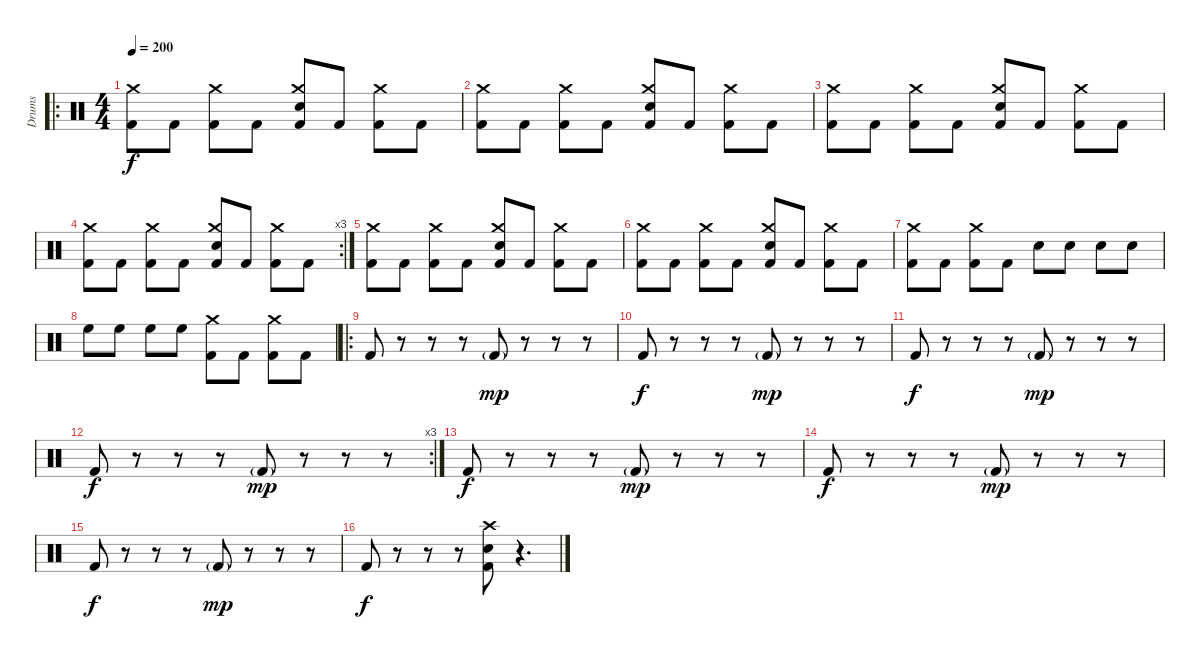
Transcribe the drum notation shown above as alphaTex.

\track ("Drums" "Drums") {instrument percussion}
\staff {score}
\articulation defaults
\ro
\ts (4 4)
\tempo 200
\clef neutral
\ks c
("Kick (hit) 2" "Crash medium (hit)").8{dy f} "Kick (hit) 2".8 ("Kick (hit) 2" "Crash medium (hit)").8 "Kick (hit) 2".8 ("Kick (hit) 2" "Crash medium (hit)" "Electric Snare (hit)").8 "Kick (hit) 2".8 ("Kick (hit) 2" "Crash medium (hit)").8 "Kick (hit) 2".8 |
("Kick (hit) 2" "Crash medium (hit)").8 "Kick (hit) 2".8 ("Kick (hit) 2" "Crash medium (hit)").8 "Kick (hit) 2".8 ("Kick (hit) 2" "Crash medium (hit)" "Electric Snare (hit)").8 "Kick (hit) 2".8 ("Kick (hit) 2" "Crash medium (hit)").8 "Kick (hit) 2".8 |
("Kick (hit) 2" "Crash medium (hit)").8 "Kick (hit) 2".8 ("Kick (hit) 2" "Crash medium (hit)").8 "Kick (hit) 2".8 ("Kick (hit) 2" "Crash medium (hit)" "Electric Snare (hit)").8 "Kick (hit) 2".8 ("Kick (hit) 2" "Crash medium (hit)").8 "Kick (hit) 2".8 |
\rc 3
("Kick (hit) 2" "Crash medium (hit)").8 "Kick (hit) 2".8 ("Kick (hit) 2" "Crash medium (hit)").8 "Kick (hit) 2".8 ("Kick (hit) 2" "Crash medium (hit)" "Electric Snare (hit)").8 "Kick (hit) 2".8 ("Kick (hit) 2" "Crash medium (hit)").8 "Kick (hit) 2".8 |
("Kick (hit) 2" "Crash medium (hit)").8 "Kick (hit) 2".8 ("Kick (hit) 2" "Crash medium (hit)").8 "Kick (hit) 2".8 ("Kick (hit) 2" "Crash medium (hit)" "Electric Snare (hit)").8 "Kick (hit) 2".8 ("Kick (hit) 2" "Crash medium (hit)").8 "Kick (hit) 2".8 |
("Kick (hit) 2" "Crash medium (hit)").8 "Kick (hit) 2".8 ("Kick (hit) 2" "Crash medium (hit)").8 "Kick (hit) 2".8 ("Kick (hit) 2" "Crash medium (hit)" "Electric Snare (hit)").8 "Kick (hit) 2".8 ("Kick (hit) 2" "Crash medium (hit)").8 "Kick (hit) 2".8 |
("Kick (hit) 2" "Crash medium (hit)").8 "Kick (hit) 2".8 ("Kick (hit) 2" "Crash medium (hit)").8 "Kick (hit) 2".8 "Electric Snare (hit)".8 "Electric Snare (hit)".8 "Electric Snare (hit)".8 "Electric Snare (hit)".8 |
"High Floor Tom (hit)".8 "High Floor Tom (hit)".8 "High Floor Tom (hit)".8 "High Floor Tom (hit)".8 ("Kick (hit) 2" "Crash medium (hit)").8 "Kick (hit) 2".8 ("Kick (hit) 2" "Crash medium (hit)").8 "Kick (hit) 2".8 |
\ro "Kick (hit) 2".8
r.8 r.8 r.8 "Kick (hit) 2"{g}.8{dy mp} r.8 r.8 r.8 |
"Kick (hit) 2".8{dy f} r.8 r.8 r.8 "Kick (hit) 2"{g}.8{dy mp} r.8 r.8 r.8 |
"Kick (hit) 2".8{dy f} r.8 r.8 r.8 "Kick (hit) 2"{g}.8{dy mp} r.8 r.8 r.8 |
\rc 3 "Kick (hit) 2".8{dy f}
r.8 r.8 r.8 "Kick (hit) 2"{g}.8{dy mp} r.8 r.8 r.8 |
"Kick (hit) 2".8{dy f} r.8 r.8 r.8 "Kick (hit) 2"{g}.8{dy mp} r.8 r.8 r.8 |
"Kick (hit) 2".8{dy f} r.8 r.8 r.8 "Kick (hit) 2"{g}.8{dy mp} r.8 r.8 r.8 |
"Kick (hit) 2".8{dy f} r.8 r.8 r.8 "Kick (hit) 2"{g}.8{dy mp} r.8 r.8 r.8 |
"Kick (hit) 2".8{dy f} r.8 r.8 r.8 ("Kick (hit) 2" "Crash high (hit)" "Electric Snare (hit)").8 r.4{d}
